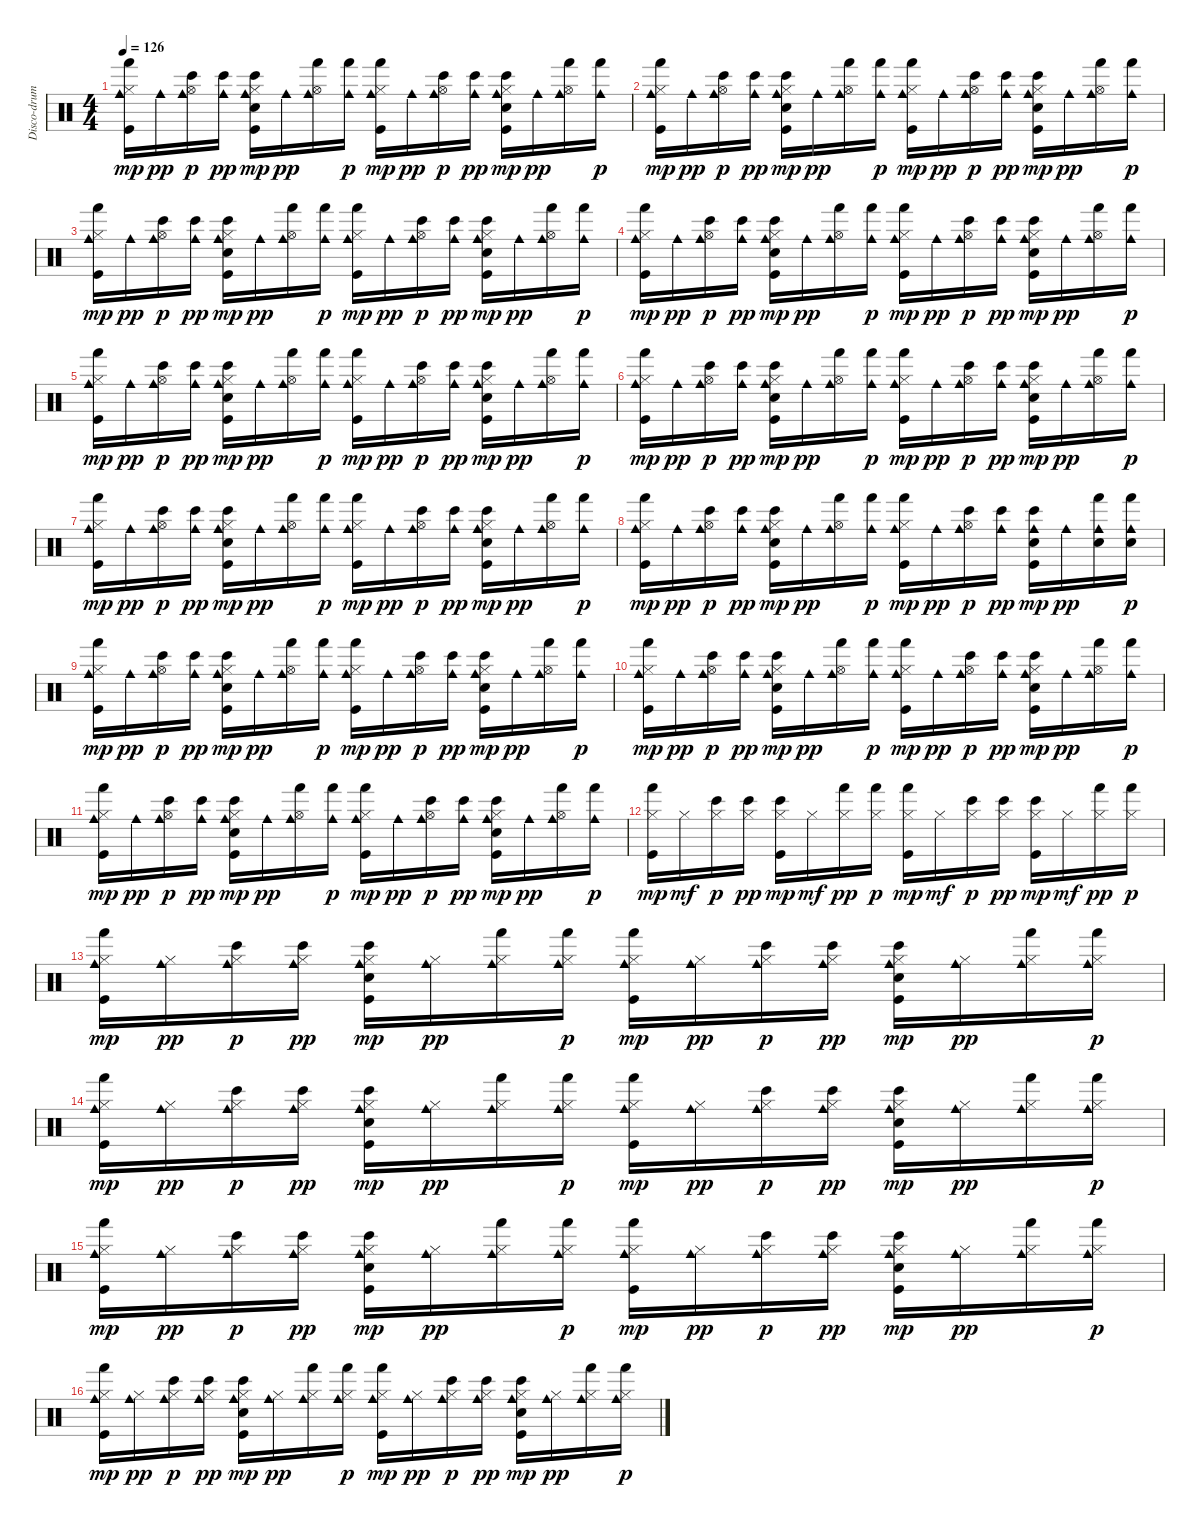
\track ("Disco-drums !" "Disco-drum") {instrument percussion}
\staff {score}
\articulation defaults
\ts (4 4)
\tempo 126
\clef neutral
\ks c
("Hi-Hat (closed)" "Kick (hit)" "Cowbell medium (hit)" "Hand (hit)").16{dy mp} "Cowbell medium (hit)".16{dy pp} ("Hi-Hat (open)" "Cowbell medium (hit)" "Bongo High (hit)").16{dy p} ("Cowbell medium (hit)" "Bongo High (hit)").16{dy pp} ("Hi-Hat (closed)" "Kick (hit)" "Snare (hit) 2" "Cowbell medium (hit)" "Bongo High (hit)").16{dy mp} "Cowbell medium (hit)".16{dy pp} ("Hi-Hat (open)" "Cowbell medium (hit)" "Hand (hit)").16 ("Cowbell medium (hit)" "Hand (hit)").16{dy p} ("Hi-Hat (closed)" "Kick (hit)" "Cowbell medium (hit)" "Hand (hit)").16{dy mp} "Cowbell medium (hit)".16{dy pp} ("Hi-Hat (open)" "Cowbell medium (hit)" "Bongo High (hit)").16{dy p} ("Cowbell medium (hit)" "Bongo High (hit)").16{dy pp} ("Hi-Hat (closed)" "Kick (hit)" "Snare (hit) 2" "Cowbell medium (hit)" "Bongo High (hit)").16{dy mp} "Cowbell medium (hit)".16{dy pp} ("Hi-Hat (open)" "Cowbell medium (hit)" "Hand (hit)").16 ("Cowbell medium (hit)" "Hand (hit)").16{dy p} |
("Hi-Hat (closed)" "Kick (hit)" "Cowbell medium (hit)" "Hand (hit)").16{dy mp} "Cowbell medium (hit)".16{dy pp} ("Hi-Hat (open)" "Cowbell medium (hit)" "Bongo High (hit)").16{dy p} ("Cowbell medium (hit)" "Bongo High (hit)").16{dy pp} ("Hi-Hat (closed)" "Kick (hit)" "Snare (hit) 2" "Cowbell medium (hit)" "Bongo High (hit)").16{dy mp} "Cowbell medium (hit)".16{dy pp} ("Hi-Hat (open)" "Cowbell medium (hit)" "Hand (hit)").16 ("Cowbell medium (hit)" "Hand (hit)").16{dy p} ("Hi-Hat (closed)" "Kick (hit)" "Cowbell medium (hit)" "Hand (hit)").16{dy mp} "Cowbell medium (hit)".16{dy pp} ("Hi-Hat (open)" "Cowbell medium (hit)" "Bongo High (hit)").16{dy p} ("Cowbell medium (hit)" "Bongo High (hit)").16{dy pp} ("Hi-Hat (closed)" "Kick (hit)" "Snare (hit) 2" "Cowbell medium (hit)" "Bongo High (hit)").16{dy mp} "Cowbell medium (hit)".16{dy pp} ("Hi-Hat (open)" "Cowbell medium (hit)" "Hand (hit)").16 ("Cowbell medium (hit)" "Hand (hit)").16{dy p} |
("Hi-Hat (closed)" "Kick (hit)" "Cowbell medium (hit)" "Hand (hit)").16{dy mp} "Cowbell medium (hit)".16{dy pp} ("Hi-Hat (open)" "Cowbell medium (hit)" "Bongo High (hit)").16{dy p} ("Cowbell medium (hit)" "Bongo High (hit)").16{dy pp} ("Hi-Hat (closed)" "Kick (hit)" "Snare (hit) 2" "Cowbell medium (hit)" "Bongo High (hit)").16{dy mp} "Cowbell medium (hit)".16{dy pp} ("Hi-Hat (open)" "Cowbell medium (hit)" "Hand (hit)").16 ("Cowbell medium (hit)" "Hand (hit)").16{dy p} ("Hi-Hat (closed)" "Kick (hit)" "Cowbell medium (hit)" "Hand (hit)").16{dy mp} "Cowbell medium (hit)".16{dy pp} ("Hi-Hat (open)" "Cowbell medium (hit)" "Bongo High (hit)").16{dy p} ("Cowbell medium (hit)" "Bongo High (hit)").16{dy pp} ("Hi-Hat (closed)" "Kick (hit)" "Snare (hit) 2" "Cowbell medium (hit)" "Bongo High (hit)").16{dy mp} "Cowbell medium (hit)".16{dy pp} ("Hi-Hat (open)" "Cowbell medium (hit)" "Hand (hit)").16 ("Cowbell medium (hit)" "Hand (hit)").16{dy p} |
("Hi-Hat (closed)" "Kick (hit)" "Cowbell medium (hit)" "Hand (hit)").16{dy mp} "Cowbell medium (hit)".16{dy pp} ("Hi-Hat (open)" "Cowbell medium (hit)" "Bongo High (hit)").16{dy p} ("Cowbell medium (hit)" "Bongo High (hit)").16{dy pp} ("Hi-Hat (closed)" "Kick (hit)" "Snare (hit) 2" "Cowbell medium (hit)" "Bongo High (hit)").16{dy mp} "Cowbell medium (hit)".16{dy pp} ("Hi-Hat (open)" "Cowbell medium (hit)" "Hand (hit)").16 ("Cowbell medium (hit)" "Hand (hit)").16{dy p} ("Hi-Hat (closed)" "Kick (hit)" "Cowbell medium (hit)" "Hand (hit)").16{dy mp} "Cowbell medium (hit)".16{dy pp} ("Hi-Hat (open)" "Cowbell medium (hit)" "Bongo High (hit)").16{dy p} ("Cowbell medium (hit)" "Bongo High (hit)").16{dy pp} ("Hi-Hat (closed)" "Kick (hit)" "Snare (hit) 2" "Cowbell medium (hit)" "Bongo High (hit)").16{dy mp} "Cowbell medium (hit)".16{dy pp} ("Hi-Hat (open)" "Cowbell medium (hit)" "Hand (hit)").16 ("Cowbell medium (hit)" "Hand (hit)").16{dy p} |
("Hi-Hat (closed)" "Kick (hit)" "Cowbell medium (hit)" "Hand (hit)").16{dy mp} "Cowbell medium (hit)".16{dy pp} ("Hi-Hat (open)" "Cowbell medium (hit)" "Bongo High (hit)").16{dy p} ("Cowbell medium (hit)" "Bongo High (hit)").16{dy pp} ("Hi-Hat (closed)" "Kick (hit)" "Snare (hit) 2" "Cowbell medium (hit)" "Bongo High (hit)").16{dy mp} "Cowbell medium (hit)".16{dy pp} ("Hi-Hat (open)" "Cowbell medium (hit)" "Hand (hit)").16 ("Cowbell medium (hit)" "Hand (hit)").16{dy p} ("Hi-Hat (closed)" "Kick (hit)" "Cowbell medium (hit)" "Hand (hit)").16{dy mp} "Cowbell medium (hit)".16{dy pp} ("Hi-Hat (open)" "Cowbell medium (hit)" "Bongo High (hit)").16{dy p} ("Cowbell medium (hit)" "Bongo High (hit)").16{dy pp} ("Hi-Hat (closed)" "Kick (hit)" "Snare (hit) 2" "Cowbell medium (hit)" "Bongo High (hit)").16{dy mp} "Cowbell medium (hit)".16{dy pp} ("Hi-Hat (open)" "Cowbell medium (hit)" "Hand (hit)").16 ("Cowbell medium (hit)" "Hand (hit)").16{dy p} |
("Hi-Hat (closed)" "Kick (hit)" "Cowbell medium (hit)" "Hand (hit)").16{dy mp} "Cowbell medium (hit)".16{dy pp} ("Hi-Hat (open)" "Cowbell medium (hit)" "Bongo High (hit)").16{dy p} ("Cowbell medium (hit)" "Bongo High (hit)").16{dy pp} ("Hi-Hat (closed)" "Kick (hit)" "Snare (hit) 2" "Cowbell medium (hit)" "Bongo High (hit)").16{dy mp} "Cowbell medium (hit)".16{dy pp} ("Hi-Hat (open)" "Cowbell medium (hit)" "Hand (hit)").16 ("Cowbell medium (hit)" "Hand (hit)").16{dy p} ("Hi-Hat (closed)" "Kick (hit)" "Cowbell medium (hit)" "Hand (hit)").16{dy mp} "Cowbell medium (hit)".16{dy pp} ("Hi-Hat (open)" "Cowbell medium (hit)" "Bongo High (hit)").16{dy p} ("Cowbell medium (hit)" "Bongo High (hit)").16{dy pp} ("Hi-Hat (closed)" "Kick (hit)" "Snare (hit) 2" "Cowbell medium (hit)" "Bongo High (hit)").16{dy mp} "Cowbell medium (hit)".16{dy pp} ("Hi-Hat (open)" "Cowbell medium (hit)" "Hand (hit)").16 ("Cowbell medium (hit)" "Hand (hit)").16{dy p} |
("Hi-Hat (closed)" "Kick (hit)" "Cowbell medium (hit)" "Hand (hit)").16{dy mp} "Cowbell medium (hit)".16{dy pp} ("Hi-Hat (open)" "Cowbell medium (hit)" "Bongo High (hit)").16{dy p} ("Cowbell medium (hit)" "Bongo High (hit)").16{dy pp} ("Hi-Hat (closed)" "Kick (hit)" "Snare (hit) 2" "Cowbell medium (hit)" "Bongo High (hit)").16{dy mp} "Cowbell medium (hit)".16{dy pp} ("Hi-Hat (open)" "Cowbell medium (hit)" "Hand (hit)").16 ("Cowbell medium (hit)" "Hand (hit)").16{dy p} ("Hi-Hat (closed)" "Kick (hit)" "Cowbell medium (hit)" "Hand (hit)").16{dy mp} "Cowbell medium (hit)".16{dy pp} ("Hi-Hat (open)" "Cowbell medium (hit)" "Bongo High (hit)").16{dy p} ("Cowbell medium (hit)" "Bongo High (hit)").16{dy pp} ("Hi-Hat (closed)" "Kick (hit)" "Snare (hit) 2" "Cowbell medium (hit)" "Bongo High (hit)").16{dy mp} "Cowbell medium (hit)".16{dy pp} ("Hi-Hat (open)" "Cowbell medium (hit)" "Hand (hit)").16 ("Cowbell medium (hit)" "Hand (hit)").16{dy p} |
("Hi-Hat (closed)" "Kick (hit)" "Cowbell medium (hit)" "Hand (hit)").16{dy mp} "Cowbell medium (hit)".16{dy pp} ("Hi-Hat (open)" "Cowbell medium (hit)" "Bongo High (hit)").16{dy p} ("Cowbell medium (hit)" "Bongo High (hit)").16{dy pp} ("Hi-Hat (closed)" "Kick (hit)" "Snare (hit) 2" "Cowbell medium (hit)" "Bongo High (hit)").16{dy mp} "Cowbell medium (hit)".16{dy pp} ("Hi-Hat (open)" "Cowbell medium (hit)" "Hand (hit)").16 ("Cowbell medium (hit)" "Hand (hit)").16{dy p} ("Hi-Hat (closed)" "Kick (hit)" "Cowbell medium (hit)" "Hand (hit)").16{dy mp} "Cowbell medium (hit)".16{dy pp} ("Hi-Hat (open)" "Cowbell medium (hit)" "Bongo High (hit)").16{dy p} ("Cowbell medium (hit)" "Bongo High (hit)").16{dy pp} ("Kick (hit)" "Snare (hit) 2" "Cowbell medium (hit)" "Bongo High (hit)").16{dy mp} "Cowbell medium (hit)".16{dy pp} ("Snare (hit) 2" "Cowbell medium (hit)" "Hand (hit)").16 ("Snare (hit) 2" "Cowbell medium (hit)" "Hand (hit)").16{dy p} |
("Hi-Hat (closed)" "Kick (hit)" "Cowbell medium (hit)" "Hand (hit)").16{dy mp} "Cowbell medium (hit)".16{dy pp} ("Hi-Hat (open)" "Cowbell medium (hit)" "Bongo High (hit)").16{dy p} ("Cowbell medium (hit)" "Bongo High (hit)").16{dy pp} ("Hi-Hat (closed)" "Kick (hit)" "Snare (hit) 2" "Cowbell medium (hit)" "Bongo High (hit)").16{dy mp} "Cowbell medium (hit)".16{dy pp} ("Hi-Hat (open)" "Cowbell medium (hit)" "Hand (hit)").16 ("Cowbell medium (hit)" "Hand (hit)").16{dy p} ("Hi-Hat (closed)" "Kick (hit)" "Cowbell medium (hit)" "Hand (hit)").16{dy mp} "Cowbell medium (hit)".16{dy pp} ("Hi-Hat (open)" "Cowbell medium (hit)" "Bongo High (hit)").16{dy p} ("Cowbell medium (hit)" "Bongo High (hit)").16{dy pp} ("Hi-Hat (closed)" "Kick (hit)" "Snare (hit) 2" "Cowbell medium (hit)" "Bongo High (hit)").16{dy mp} "Cowbell medium (hit)".16{dy pp} ("Hi-Hat (open)" "Cowbell medium (hit)" "Hand (hit)").16 ("Cowbell medium (hit)" "Hand (hit)").16{dy p} |
("Hi-Hat (closed)" "Kick (hit)" "Cowbell medium (hit)" "Hand (hit)").16{dy mp} "Cowbell medium (hit)".16{dy pp} ("Hi-Hat (open)" "Cowbell medium (hit)" "Bongo High (hit)").16{dy p} ("Cowbell medium (hit)" "Bongo High (hit)").16{dy pp} ("Hi-Hat (closed)" "Kick (hit)" "Snare (hit) 2" "Cowbell medium (hit)" "Bongo High (hit)").16{dy mp} "Cowbell medium (hit)".16{dy pp} ("Hi-Hat (open)" "Cowbell medium (hit)" "Hand (hit)").16 ("Cowbell medium (hit)" "Hand (hit)").16{dy p} ("Hi-Hat (closed)" "Kick (hit)" "Cowbell medium (hit)" "Hand (hit)").16{dy mp} "Cowbell medium (hit)".16{dy pp} ("Hi-Hat (open)" "Cowbell medium (hit)" "Bongo High (hit)").16{dy p} ("Cowbell medium (hit)" "Bongo High (hit)").16{dy pp} ("Hi-Hat (closed)" "Kick (hit)" "Snare (hit) 2" "Cowbell medium (hit)" "Bongo High (hit)").16{dy mp} "Cowbell medium (hit)".16{dy pp} ("Hi-Hat (open)" "Cowbell medium (hit)" "Hand (hit)").16 ("Cowbell medium (hit)" "Hand (hit)").16{dy p} |
("Hi-Hat (closed)" "Kick (hit)" "Cowbell medium (hit)" "Hand (hit)").16{dy mp} "Cowbell medium (hit)".16{dy pp} ("Hi-Hat (open)" "Cowbell medium (hit)" "Bongo High (hit)").16{dy p} ("Cowbell medium (hit)" "Bongo High (hit)").16{dy pp} ("Hi-Hat (closed)" "Kick (hit)" "Snare (hit) 2" "Cowbell medium (hit)" "Bongo High (hit)").16{dy mp} "Cowbell medium (hit)".16{dy pp} ("Hi-Hat (open)" "Cowbell medium (hit)" "Hand (hit)").16 ("Cowbell medium (hit)" "Hand (hit)").16{dy p} ("Hi-Hat (closed)" "Kick (hit)" "Cowbell medium (hit)" "Hand (hit)").16{dy mp} "Cowbell medium (hit)".16{dy pp} ("Hi-Hat (open)" "Cowbell medium (hit)" "Bongo High (hit)").16{dy p} ("Cowbell medium (hit)" "Bongo High (hit)").16{dy pp} ("Hi-Hat (closed)" "Kick (hit)" "Snare (hit) 2" "Cowbell medium (hit)" "Bongo High (hit)").16{dy mp} "Cowbell medium (hit)".16{dy pp} ("Hi-Hat (open)" "Cowbell medium (hit)" "Hand (hit)").16 ("Cowbell medium (hit)" "Hand (hit)").16{dy p} |
("Hi-Hat (closed)" "Kick (hit)" "Hand (hit)").16{dy mp} "Hi-Hat (closed)".16{dy mf} ("Hi-Hat (closed)" "Bongo High (hit)").16{dy p} ("Hi-Hat (closed)" "Bongo High (hit)").16{dy pp} ("Hi-Hat (closed)" "Kick (hit)" "Bongo High (hit)").16{dy mp} "Hi-Hat (closed)".16{dy mf} ("Hi-Hat (closed)" "Hand (hit)").16{dy pp} ("Hi-Hat (closed)" "Hand (hit)").16{dy p} ("Hi-Hat (closed)" "Kick (hit)" "Hand (hit)").16{dy mp} "Hi-Hat (closed)".16{dy mf} ("Hi-Hat (closed)" "Bongo High (hit)").16{dy p} ("Hi-Hat (closed)" "Bongo High (hit)").16{dy pp} ("Hi-Hat (closed)" "Kick (hit)" "Bongo High (hit)").16{dy mp} "Hi-Hat (closed)".16{dy mf} ("Hi-Hat (closed)" "Hand (hit)").16{dy pp} ("Hi-Hat (closed)" "Hand (hit)").16{dy p} |
("Hi-Hat (closed)" "Kick (hit)" "Cowbell medium (hit)" "Hand (hit)").16{dy mp} ("Hi-Hat (closed)" "Cowbell medium (hit)").16{dy pp} ("Hi-Hat (closed)" "Cowbell medium (hit)" "Bongo High (hit)").16{dy p} ("Hi-Hat (closed)" "Cowbell medium (hit)" "Bongo High (hit)").16{dy pp} ("Hi-Hat (closed)" "Kick (hit)" "Snare (hit) 2" "Cowbell medium (hit)" "Bongo High (hit)").16{dy mp} ("Hi-Hat (closed)" "Cowbell medium (hit)").16{dy pp} ("Hi-Hat (closed)" "Cowbell medium (hit)" "Hand (hit)").16 ("Hi-Hat (closed)" "Cowbell medium (hit)" "Hand (hit)").16{dy p} ("Hi-Hat (closed)" "Kick (hit)" "Cowbell medium (hit)" "Hand (hit)").16{dy mp} ("Hi-Hat (closed)" "Cowbell medium (hit)").16{dy pp} ("Hi-Hat (closed)" "Cowbell medium (hit)" "Bongo High (hit)").16{dy p} ("Hi-Hat (closed)" "Cowbell medium (hit)" "Bongo High (hit)").16{dy pp} ("Hi-Hat (closed)" "Kick (hit)" "Snare (hit) 2" "Cowbell medium (hit)" "Bongo High (hit)").16{dy mp} ("Hi-Hat (closed)" "Cowbell medium (hit)").16{dy pp} ("Hi-Hat (closed)" "Cowbell medium (hit)" "Hand (hit)").16 ("Hi-Hat (closed)" "Cowbell medium (hit)" "Hand (hit)").16{dy p} |
("Hi-Hat (closed)" "Kick (hit)" "Cowbell medium (hit)" "Hand (hit)").16{dy mp} ("Hi-Hat (closed)" "Cowbell medium (hit)").16{dy pp} ("Hi-Hat (closed)" "Cowbell medium (hit)" "Bongo High (hit)").16{dy p} ("Hi-Hat (closed)" "Cowbell medium (hit)" "Bongo High (hit)").16{dy pp} ("Hi-Hat (closed)" "Kick (hit)" "Snare (hit) 2" "Cowbell medium (hit)" "Bongo High (hit)").16{dy mp} ("Hi-Hat (closed)" "Cowbell medium (hit)").16{dy pp} ("Hi-Hat (closed)" "Cowbell medium (hit)" "Hand (hit)").16 ("Hi-Hat (closed)" "Cowbell medium (hit)" "Hand (hit)").16{dy p} ("Hi-Hat (closed)" "Kick (hit)" "Cowbell medium (hit)" "Hand (hit)").16{dy mp} ("Hi-Hat (closed)" "Cowbell medium (hit)").16{dy pp} ("Hi-Hat (closed)" "Cowbell medium (hit)" "Bongo High (hit)").16{dy p} ("Hi-Hat (closed)" "Cowbell medium (hit)" "Bongo High (hit)").16{dy pp} ("Hi-Hat (closed)" "Kick (hit)" "Snare (hit) 2" "Cowbell medium (hit)" "Bongo High (hit)").16{dy mp} ("Hi-Hat (closed)" "Cowbell medium (hit)").16{dy pp} ("Hi-Hat (closed)" "Cowbell medium (hit)" "Hand (hit)").16 ("Hi-Hat (closed)" "Cowbell medium (hit)" "Hand (hit)").16{dy p} |
("Hi-Hat (closed)" "Kick (hit)" "Cowbell medium (hit)" "Hand (hit)").16{dy mp} ("Hi-Hat (closed)" "Cowbell medium (hit)").16{dy pp} ("Hi-Hat (closed)" "Cowbell medium (hit)" "Bongo High (hit)").16{dy p} ("Hi-Hat (closed)" "Cowbell medium (hit)" "Bongo High (hit)").16{dy pp} ("Hi-Hat (closed)" "Kick (hit)" "Snare (hit) 2" "Cowbell medium (hit)" "Bongo High (hit)").16{dy mp} ("Hi-Hat (closed)" "Cowbell medium (hit)").16{dy pp} ("Hi-Hat (closed)" "Cowbell medium (hit)" "Hand (hit)").16 ("Hi-Hat (closed)" "Cowbell medium (hit)" "Hand (hit)").16{dy p} ("Hi-Hat (closed)" "Kick (hit)" "Cowbell medium (hit)" "Hand (hit)").16{dy mp} ("Hi-Hat (closed)" "Cowbell medium (hit)").16{dy pp} ("Hi-Hat (closed)" "Cowbell medium (hit)" "Bongo High (hit)").16{dy p} ("Hi-Hat (closed)" "Cowbell medium (hit)" "Bongo High (hit)").16{dy pp} ("Hi-Hat (closed)" "Kick (hit)" "Snare (hit) 2" "Cowbell medium (hit)" "Bongo High (hit)").16{dy mp} ("Hi-Hat (closed)" "Cowbell medium (hit)").16{dy pp} ("Hi-Hat (closed)" "Cowbell medium (hit)" "Hand (hit)").16 ("Hi-Hat (closed)" "Cowbell medium (hit)" "Hand (hit)").16{dy p} |
("Hi-Hat (closed)" "Kick (hit)" "Cowbell medium (hit)" "Hand (hit)").16{dy mp} ("Hi-Hat (closed)" "Cowbell medium (hit)").16{dy pp} ("Hi-Hat (closed)" "Cowbell medium (hit)" "Bongo High (hit)").16{dy p} ("Hi-Hat (closed)" "Cowbell medium (hit)" "Bongo High (hit)").16{dy pp} ("Hi-Hat (closed)" "Kick (hit)" "Snare (hit) 2" "Cowbell medium (hit)" "Bongo High (hit)").16{dy mp} ("Hi-Hat (closed)" "Cowbell medium (hit)").16{dy pp} ("Hi-Hat (closed)" "Cowbell medium (hit)" "Hand (hit)").16 ("Hi-Hat (closed)" "Cowbell medium (hit)" "Hand (hit)").16{dy p} ("Hi-Hat (closed)" "Kick (hit)" "Cowbell medium (hit)" "Hand (hit)").16{dy mp} ("Hi-Hat (closed)" "Cowbell medium (hit)").16{dy pp} ("Hi-Hat (closed)" "Cowbell medium (hit)" "Bongo High (hit)").16{dy p} ("Hi-Hat (closed)" "Cowbell medium (hit)" "Bongo High (hit)").16{dy pp} ("Hi-Hat (closed)" "Kick (hit)" "Snare (hit) 2" "Cowbell medium (hit)" "Bongo High (hit)").16{dy mp} ("Hi-Hat (closed)" "Cowbell medium (hit)").16{dy pp} ("Hi-Hat (closed)" "Cowbell medium (hit)" "Hand (hit)").16 ("Hi-Hat (closed)" "Cowbell medium (hit)" "Hand (hit)").16{dy p}
